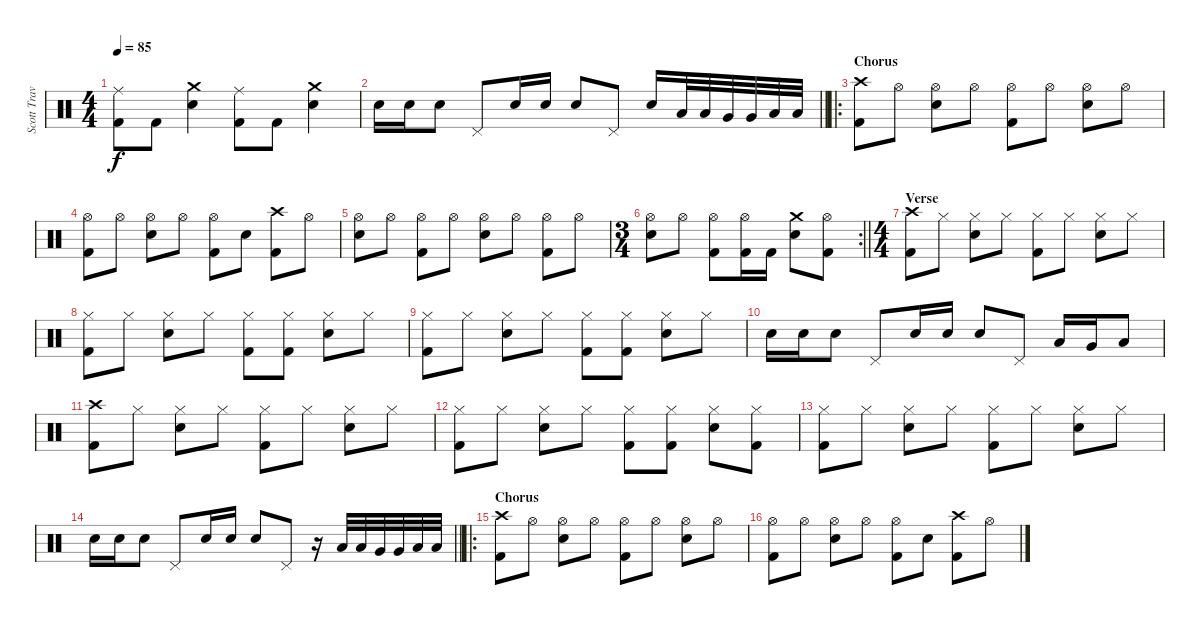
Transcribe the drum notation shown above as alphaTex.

\track ("Scott Travis" "Scott Trav") {instrument percussion}
\staff {score}
\articulation defaults
\ts (4 4)
\tempo 85
\clef neutral
\ks c
("Ride (middle)" "Kick (hit) 2").8{dy f} "Kick (hit) 2".8 ("Crash medium (hit)" "Snare (hit) 2").4 ("Ride (middle)" "Kick (hit) 2").8 "Kick (hit) 2".8 ("Crash medium (hit)" "Snare (hit) 2").4 |
\barLineRight lightlight "Snare (hit) 2".16 "Snare (hit) 2".16 "Snare (hit) 2".8 "Pedal Hi-Hat (hit)".8 "Snare (hit) 2".16 "Snare (hit) 2".16 "Snare (hit) 2".8 "Pedal Hi-Hat (hit)".8 "Snare (hit) 2".16 "Low Tom (hit)".32 "Low Tom (hit)".32 "Very Low Tom (hit)".32 "Very Low Tom (hit)".32 "Low Floor Tom (hit)".32 "Low Floor Tom (hit)".32
|
\ro
\section ("" "Chorus")
("Crash high (hit)" "Kick (hit) 2").8 "Hi-Hat (open)".8 ("Hi-Hat (open)" "Snare (hit) 2").8 "Hi-Hat (open)".8 ("Hi-Hat (open)" "Kick (hit) 2").8 "Hi-Hat (open)".8 ("Hi-Hat (open)" "Snare (hit) 2").8 "Hi-Hat (open)".8 |
("Hi-Hat (open)" "Kick (hit) 2").8 "Hi-Hat (open)".8 ("Hi-Hat (open)" "Snare (hit) 2").8 "Hi-Hat (open)".8 ("Hi-Hat (open)" "Kick (hit) 2").8 "Snare (hit) 2".8 ("Crash high (hit)" "Kick (hit) 2").8 "Hi-Hat (open)".8 |
("Hi-Hat (open)" "Snare (hit) 2").8 "Hi-Hat (open)".8 ("Hi-Hat (open)" "Kick (hit) 2").8 "Hi-Hat (open)".8 ("Hi-Hat (open)" "Snare (hit) 2").8 "Hi-Hat (open)".8 ("Hi-Hat (open)" "Kick (hit) 2").8 "Hi-Hat (open)".8 |
\rc 2
\ts (3 4)
\barLineRight lightlight
("Hi-Hat (open)" "Snare (hit) 2").8 "Hi-Hat (open)".8 ("Hi-Hat (open)" "Kick (hit) 2").8 ("Hi-Hat (open)" "Kick (hit) 2").16 "Kick (hit) 2".16 ("Crash medium (hit)" "Snare (hit) 2").8 ("Hi-Hat (open)" "Kick (hit) 2").8 |
\ts (4 4)
\section ("" "Verse")
("Crash high (hit)" "Kick (hit) 2").8 "Hi-Hat (closed)".8 ("Hi-Hat (closed)" "Snare (hit) 2").8 "Hi-Hat (closed)".8 ("Hi-Hat (closed)" "Kick (hit) 2").8 "Hi-Hat (closed)".8 ("Hi-Hat (closed)" "Snare (hit) 2").8 "Hi-Hat (closed)".8 |
("Hi-Hat (closed)" "Kick (hit) 2").8 "Hi-Hat (closed)".8 ("Hi-Hat (closed)" "Snare (hit) 2").8 "Hi-Hat (closed)".8 ("Hi-Hat (closed)" "Kick (hit) 2").8 ("Hi-Hat (closed)" "Kick (hit) 2").8 ("Hi-Hat (closed)" "Snare (hit) 2").8 "Hi-Hat (closed)".8 |
("Hi-Hat (closed)" "Kick (hit) 2").8 "Hi-Hat (closed)".8 ("Hi-Hat (closed)" "Snare (hit) 2").8 "Hi-Hat (closed)".8 ("Hi-Hat (closed)" "Kick (hit) 2").8 ("Hi-Hat (closed)" "Kick (hit) 2").8 ("Hi-Hat (closed)" "Snare (hit) 2").8 "Hi-Hat (closed)".8 |
"Snare (hit) 2".16 "Snare (hit) 2".16 "Snare (hit) 2".8 "Pedal Hi-Hat (hit)".8 "Snare (hit) 2".16 "Snare (hit) 2".16 "Snare (hit) 2".8 "Pedal Hi-Hat (hit)".8 "Low Tom (hit)".16 "Very Low Tom (hit)".16 "Low Floor Tom (hit)".8 |
("Crash high (hit)" "Kick (hit) 2").8 "Hi-Hat (closed)".8 ("Hi-Hat (closed)" "Snare (hit) 2").8 "Hi-Hat (closed)".8 ("Hi-Hat (closed)" "Kick (hit) 2").8 "Hi-Hat (closed)".8 ("Hi-Hat (closed)" "Snare (hit) 2").8 "Hi-Hat (closed)".8 |
("Hi-Hat (closed)" "Kick (hit) 2").8 "Hi-Hat (closed)".8 ("Hi-Hat (closed)" "Snare (hit) 2").8 "Hi-Hat (closed)".8 ("Hi-Hat (closed)" "Kick (hit) 2").8 ("Hi-Hat (closed)" "Kick (hit) 2").8 ("Hi-Hat (closed)" "Snare (hit) 2").8 ("Hi-Hat (closed)" "Kick (hit) 2").8 |
("Hi-Hat (closed)" "Kick (hit) 2").8 "Hi-Hat (closed)".8 ("Hi-Hat (closed)" "Snare (hit) 2").8 "Hi-Hat (closed)".8 ("Hi-Hat (closed)" "Kick (hit) 2").8 "Hi-Hat (closed)".8 ("Hi-Hat (closed)" "Snare (hit) 2").8 "Hi-Hat (closed)".8 |
\barLineRight lightlight "Snare (hit) 2".16 "Snare (hit) 2".16 "Snare (hit) 2".8 "Pedal Hi-Hat (hit)".8 "Snare (hit) 2".16 "Snare (hit) 2".16 "Snare (hit) 2".8 "Pedal Hi-Hat (hit)".8
r.16 "Low Tom (hit)".32 "Low Tom (hit)".32 "Very Low Tom (hit)".32 "Very Low Tom (hit)".32 "Low Floor Tom (hit)".32 "Low Floor Tom (hit)".32 |
\ro
\section ("" "Chorus")
("Crash high (hit)" "Kick (hit) 2").8 "Hi-Hat (open)".8 ("Hi-Hat (open)" "Snare (hit) 2").8 "Hi-Hat (open)".8 ("Hi-Hat (open)" "Kick (hit) 2").8 "Hi-Hat (open)".8 ("Hi-Hat (open)" "Snare (hit) 2").8 "Hi-Hat (open)".8 |
("Hi-Hat (open)" "Kick (hit) 2").8 "Hi-Hat (open)".8 ("Hi-Hat (open)" "Snare (hit) 2").8 "Hi-Hat (open)".8 ("Hi-Hat (open)" "Kick (hit) 2").8 "Snare (hit) 2".8 ("Crash high (hit)" "Kick (hit) 2").8 "Hi-Hat (open)".8
